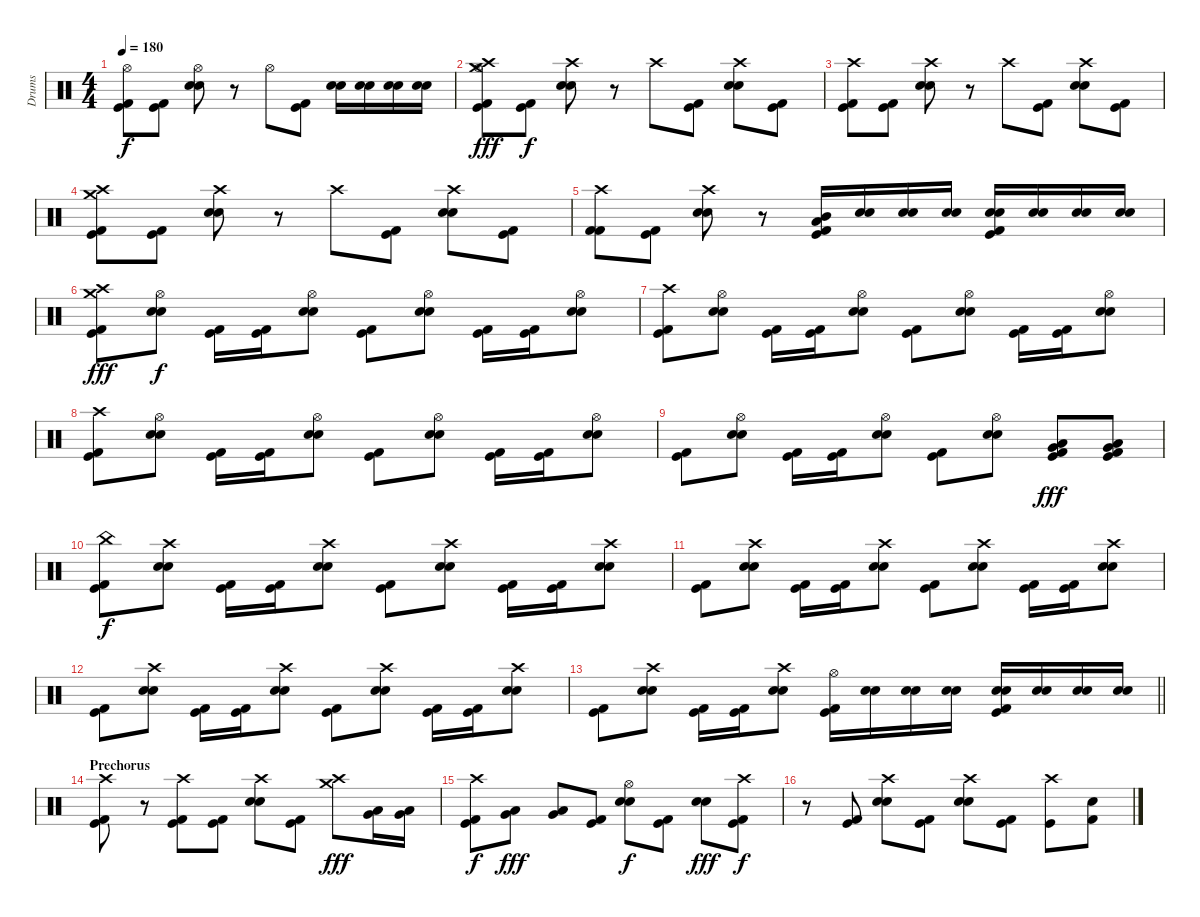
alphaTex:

\track ("Drums" "Drums") {instrument percussion}
\staff {score}
\articulation defaults
\ts (4 4)
\tempo 180
\clef neutral
\ks c
("Hi-Hat (open)" "Kick (hit)" "Kick (hit) 2").8{dy f} ("Kick (hit)" "Kick (hit) 2").8 ("Hi-Hat (open)" "Electric Snare (hit)" "Snare (hit) 2").8 r.8 "Hi-Hat (open)".8 ("Kick (hit)" "Kick (hit) 2").8 ("Electric Snare (hit)" "Snare (hit) 2").16 ("Electric Snare (hit)" "Snare (hit) 2").16 ("Electric Snare (hit)" "Snare (hit) 2").16 ("Electric Snare (hit)" "Snare (hit) 2").16 |
("Crash high (hit)" "Crash medium (hit)" "Hi-Hat (open)" "Kick (hit)" "Kick (hit) 2").8{dy fff} ("Kick (hit)" "Kick (hit) 2").8{dy f} ("Crash high (hit)" "Snare (hit) 2" "Electric Snare (hit)").8 r.8 "Crash high (hit)".8 ("Kick (hit)" "Kick (hit) 2").8 ("Crash high (hit)" "Snare (hit) 2" "Electric Snare (hit)").8 ("Kick (hit)" "Kick (hit) 2").8 |
("Crash high (hit)" "Kick (hit)" "Kick (hit) 2").8 ("Kick (hit)" "Kick (hit) 2").8 ("Crash high (hit)" "Snare (hit) 2" "Electric Snare (hit)").8 r.8 "Crash high (hit)".8 ("Kick (hit)" "Kick (hit) 2").8 ("Crash high (hit)" "Snare (hit) 2" "Electric Snare (hit)").8 ("Kick (hit)" "Kick (hit) 2").8 |
("Crash high (hit)" "Crash medium (hit)" "Kick (hit)" "Kick (hit) 2").8 ("Kick (hit)" "Kick (hit) 2").8 ("Crash high (hit)" "Snare (hit) 2" "Electric Snare (hit)").8 r.8 "Crash high (hit)".8 ("Kick (hit)" "Kick (hit) 2").8 ("Crash high (hit)" "Snare (hit) 2" "Electric Snare (hit)").8 ("Kick (hit)" "Kick (hit) 2").8 |
("Crash high (hit)" "Kick (hit) 2" "Kick (hit) 2").8 ("Kick (hit)" "Kick (hit) 2").8 ("Crash high (hit)" "Snare (hit) 2" "Electric Snare (hit)").8 r.8 ("Mid Tom (hit)" "Low Tom (hit)" "Kick (hit)" "Kick (hit) 2").16 ("Electric Snare (hit)" "Snare (hit) 2").16 ("Electric Snare (hit)" "Snare (hit) 2").16 ("Electric Snare (hit)" "Snare (hit) 2").16 ("Electric Snare (hit)" "Snare (hit) 2" "Kick (hit)" "Kick (hit) 2").16 ("Electric Snare (hit)" "Snare (hit) 2").16 ("Electric Snare (hit)" "Snare (hit) 2").16 ("Electric Snare (hit)" "Snare (hit) 2").16 |
("Crash medium (hit)" "Kick (hit)" "Crash high (hit)" "Kick (hit) 2").8{dy fff} ("Electric Snare (hit)" "Snare (hit) 2" "Hi-Hat (open)").8{dy f} ("Kick (hit)" "Kick (hit) 2").16 ("Kick (hit)" "Kick (hit) 2").16 ("Electric Snare (hit)" "Snare (hit) 2" "Hi-Hat (open)").8 ("Kick (hit)" "Kick (hit) 2").8 ("Electric Snare (hit)" "Snare (hit) 2" "Hi-Hat (open)").8 ("Kick (hit)" "Kick (hit) 2").16 ("Kick (hit)" "Kick (hit) 2").16 ("Electric Snare (hit)" "Snare (hit) 2" "Hi-Hat (open)").8 |
("Kick (hit)" "Crash high (hit)" "Kick (hit) 2").8 ("Electric Snare (hit)" "Snare (hit) 2" "Hi-Hat (open)").8 ("Kick (hit)" "Kick (hit) 2").16 ("Kick (hit)" "Kick (hit) 2").16 ("Electric Snare (hit)" "Snare (hit) 2" "Hi-Hat (open)").8 ("Kick (hit)" "Kick (hit) 2").8 ("Electric Snare (hit)" "Snare (hit) 2" "Hi-Hat (open)").8 ("Kick (hit)" "Kick (hit) 2").16 ("Kick (hit)" "Kick (hit) 2").16 ("Electric Snare (hit)" "Snare (hit) 2" "Hi-Hat (open)").8 |
("Kick (hit)" "Crash high (hit)" "Kick (hit) 2").8 ("Electric Snare (hit)" "Snare (hit) 2" "Hi-Hat (open)").8 ("Kick (hit)" "Kick (hit) 2").16 ("Kick (hit)" "Kick (hit) 2").16 ("Electric Snare (hit)" "Snare (hit) 2" "Hi-Hat (open)").8 ("Kick (hit)" "Kick (hit) 2").8 ("Electric Snare (hit)" "Snare (hit) 2" "Hi-Hat (open)").8 ("Kick (hit)" "Kick (hit) 2").16 ("Kick (hit)" "Kick (hit) 2").16 ("Electric Snare (hit)" "Snare (hit) 2" "Hi-Hat (open)").8 |
("Kick (hit)" "Kick (hit) 2").8 ("Electric Snare (hit)" "Snare (hit) 2" "Hi-Hat (open)").8 ("Kick (hit)" "Kick (hit) 2").16 ("Kick (hit)" "Kick (hit) 2").16 ("Electric Snare (hit)" "Snare (hit) 2" "Hi-Hat (open)").8 ("Kick (hit)" "Kick (hit) 2").8 ("Electric Snare (hit)" "Snare (hit) 2" "Hi-Hat (open)").8 ("Low Floor Tom (hit)" "Very Low Tom (hit)" "Kick (hit)" "Kick (hit) 2").8{dy fff} ("Low Floor Tom (hit)" "Very Low Tom (hit)" "Kick (hit)" "Kick (hit) 2").8 |
("Kick (hit)" "China (hit)" "Kick (hit) 2").8{dy f} ("Electric Snare (hit)" "Snare (hit) 2" "Crash high (hit)").8 ("Kick (hit)" "Kick (hit) 2").16 ("Kick (hit)" "Kick (hit) 2").16 ("Electric Snare (hit)" "Snare (hit) 2" "Crash high (hit)").8 ("Kick (hit)" "Kick (hit) 2").8 ("Electric Snare (hit)" "Snare (hit) 2" "Crash high (hit)").8 ("Kick (hit)" "Kick (hit) 2").16 ("Kick (hit)" "Kick (hit) 2").16 ("Electric Snare (hit)" "Snare (hit) 2" "Crash high (hit)").8 |
("Kick (hit)" "Kick (hit) 2").8 ("Electric Snare (hit)" "Snare (hit) 2" "Crash high (hit)").8 ("Kick (hit)" "Kick (hit) 2").16 ("Kick (hit)" "Kick (hit) 2").16 ("Electric Snare (hit)" "Snare (hit) 2" "Crash high (hit)").8 ("Kick (hit)" "Kick (hit) 2").8 ("Electric Snare (hit)" "Snare (hit) 2" "Crash high (hit)").8 ("Kick (hit)" "Kick (hit) 2").16 ("Kick (hit)" "Kick (hit) 2").16 ("Electric Snare (hit)" "Snare (hit) 2" "Crash high (hit)").8 |
("Kick (hit)" "Kick (hit) 2").8 ("Electric Snare (hit)" "Snare (hit) 2" "Crash high (hit)").8 ("Kick (hit)" "Kick (hit) 2").16 ("Kick (hit)" "Kick (hit) 2").16 ("Electric Snare (hit)" "Snare (hit) 2" "Crash high (hit)").8 ("Kick (hit)" "Kick (hit) 2").8 ("Electric Snare (hit)" "Snare (hit) 2" "Crash high (hit)").8 ("Kick (hit)" "Kick (hit) 2").16 ("Kick (hit)" "Kick (hit) 2").16 ("Electric Snare (hit)" "Snare (hit) 2" "Crash high (hit)").8 |
\barLineRight lightlight
("Kick (hit)" "Kick (hit) 2").8 ("Electric Snare (hit)" "Snare (hit) 2" "Crash high (hit)").8 ("Kick (hit)" "Kick (hit) 2").16 ("Kick (hit)" "Kick (hit) 2").16 ("Electric Snare (hit)" "Snare (hit) 2" "Crash high (hit)").8 ("Kick (hit)" "Hi-Hat (open)" "Kick (hit) 2").16 ("Electric Snare (hit)" "Snare (hit) 2").16 ("Electric Snare (hit)" "Snare (hit) 2").16 ("Electric Snare (hit)" "Snare (hit) 2").16 ("Electric Snare (hit)" "Kick (hit)" "Snare (hit) 2" "Kick (hit) 2").16 ("Electric Snare (hit)" "Snare (hit) 2").16 ("Electric Snare (hit)" "Snare (hit) 2").16 ("Electric Snare (hit)" "Snare (hit) 2").16 |
\section ("" "Prechorus")
("Kick (hit)" "Crash high (hit)" "Kick (hit) 2").8 r.8 ("Crash high (hit)" "Kick (hit)" "Kick (hit) 2").8 ("Kick (hit)" "Kick (hit) 2").8 ("Electric Snare (hit)" "Crash high (hit)" "Snare (hit) 2").8 ("Kick (hit)" "Kick (hit) 2").8 ("Crash medium (hit)" "Crash high (hit)").8{dy fff} ("Very Low Tom (hit)" "Low Tom (hit)").16 ("Very Low Tom (hit)" "Low Tom (hit)").16 |
("Kick (hit)" "Crash high (hit)" "Kick (hit) 2").8{dy f} ("Very Low Tom (hit)" "Low Tom (hit)").8{dy fff} ("Low Floor Tom (hit)" "Very Low Tom (hit)").8 ("Kick (hit)" "Kick (hit) 2").8 ("Electric Snare (hit)" "Snare (hit) 2" "Hi-Hat (open)").8{dy f} ("Kick (hit)" "Kick (hit) 2").8 ("Electric Snare (hit)" "Snare (hit) 2").8{dy fff} ("Kick (hit)" "Crash high (hit)" "Kick (hit) 2").8{dy f} |
r.8 ("Kick (hit)" "Kick (hit) 2").8 ("Electric Snare (hit)" "Crash high (hit)" "Snare (hit) 2").8 ("Kick (hit)" "Kick (hit) 2").8 ("Electric Snare (hit)" "Crash high (hit)" "Snare (hit) 2").8 ("Kick (hit)" "Kick (hit) 2").8 ("Crash high (hit)" "Kick (hit)").8 ("Snare (hit) 2" "Kick (hit) 2").8
